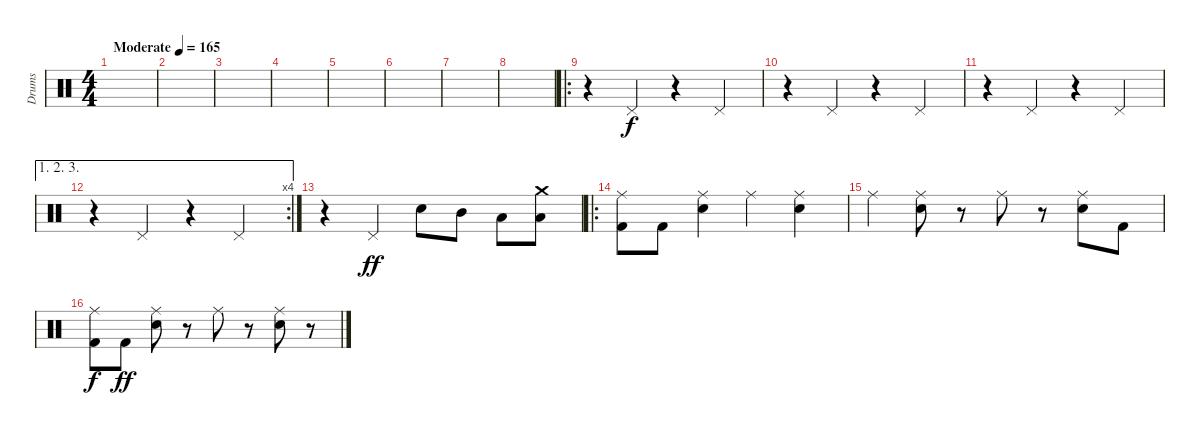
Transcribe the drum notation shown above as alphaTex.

\track ("Drums" "Drums") {instrument percussion}
\staff {score}
\articulation defaults
\ts (4 4)
\tempo (165 "Moderate")
\clef neutral
\ks c
|
|
|
|
|
|
|
|
\ro
r.4 "Pedal Hi-Hat (hit)".4 r.4 "Pedal Hi-Hat (hit)".4 |
r.4 "Pedal Hi-Hat (hit)".4 r.4 "Pedal Hi-Hat (hit)".4 |
r.4 "Pedal Hi-Hat (hit)".4 r.4 "Pedal Hi-Hat (hit)".4 |
\ae (1 2 3)
\rc 4
r.4 "Pedal Hi-Hat (hit)".4 r.4 "Pedal Hi-Hat (hit)".4 |
r.4 "Pedal Hi-Hat (hit)".4{dy ff} "Snare (hit) 2".8 "Mid Tom (hit)".8 "Low Tom (hit)".8 ("Crash medium (hit)" "Low Floor Tom (hit)").8 |
\ro
("Ride (middle)" "Kick (hit) 2").8 "Kick (hit) 2".8 ("Ride (middle)" "Snare (hit) 2").4 "Ride (middle)".4 ("Ride (middle)" "Snare (hit) 2").4 |
"Ride (middle)".4 ("Ride (middle)" "Snare (hit) 2").8 r.8 "Ride (middle)".8 r.8 ("Ride (middle)" "Snare (hit) 2").8 "Kick (hit) 2".8 |
("Ride (middle)" "Kick (hit) 2").8{dy f} "Kick (hit) 2".8{dy ff} ("Ride (middle)" "Snare (hit) 2").8 r.8 "Ride (middle)".8 r.8 ("Ride (middle)" "Snare (hit) 2").8 r.8
